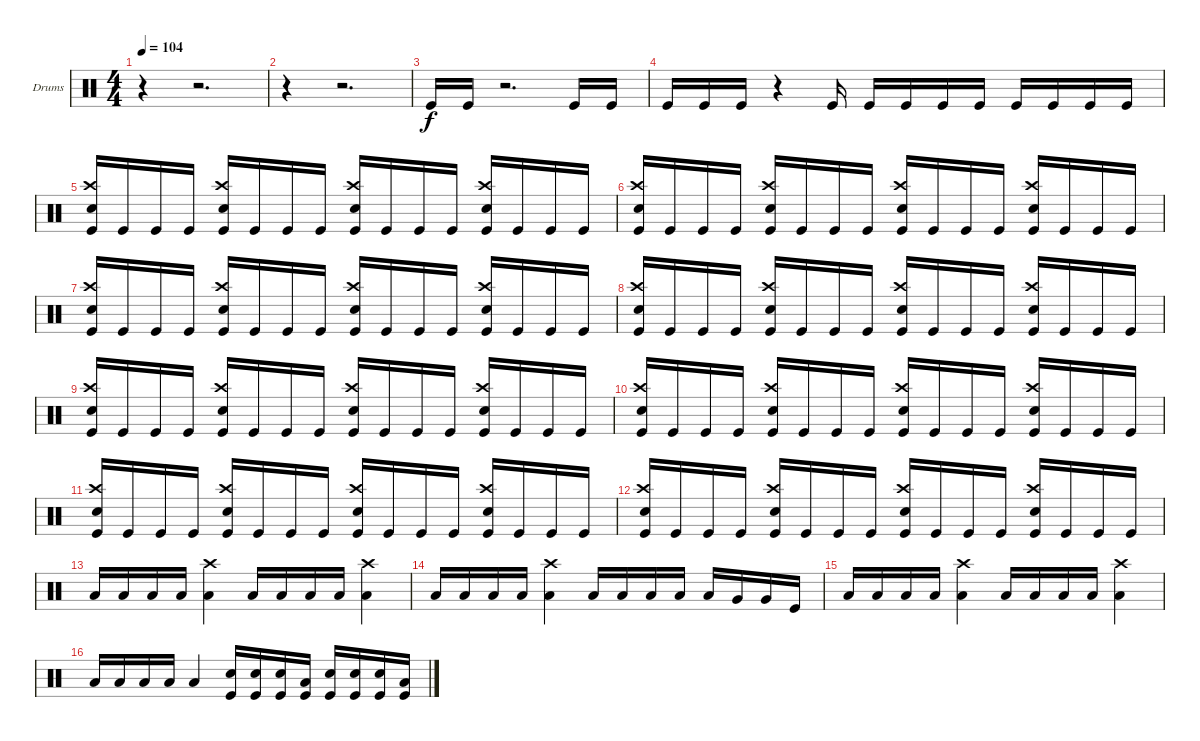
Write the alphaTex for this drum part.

\bracketExtendMode groupsimilarinstruments
\firstSystemTrackNameOrientation horizontal
\otherSystemsTrackNameOrientation horizontal
\track ("Drumkit" "Drums") {instrument percussion}
\staff {score}
\articulation defaults
\ts (4 4)
\beaming (8 2 2 2 2)
\tempo 104
\clef neutral
\ks c
r.4{dy f} r.2{d} |
r.4 r.2{d} |
"Kick (hit)".16 "Kick (hit)".16 r.2{d} "Kick (hit)".16 "Kick (hit)".16 |
"Kick (hit)".16 "Kick (hit)".16 "Kick (hit)".16 r.4 "Kick (hit)".16 "Kick (hit)".16 "Kick (hit)".16 "Kick (hit)".16 "Kick (hit)".16 "Kick (hit)".16 "Kick (hit)".16 "Kick (hit)".16 "Kick (hit)".16 |
("Crash high (hit)" "Snare (hit) 2" "Kick (hit)").16 "Kick (hit)".16 "Kick (hit)".16 "Kick (hit)".16 ("Crash high (hit)" "Snare (hit) 2" "Kick (hit)").16 "Kick (hit)".16 "Kick (hit)".16 "Kick (hit)".16 ("Crash high (hit)" "Snare (hit) 2" "Kick (hit)").16 "Kick (hit)".16 "Kick (hit)".16 "Kick (hit)".16 ("Crash high (hit)" "Snare (hit) 2" "Kick (hit)").16 "Kick (hit)".16 "Kick (hit)".16 "Kick (hit)".16 |
("Crash high (hit)" "Snare (hit) 2" "Kick (hit)").16 "Kick (hit)".16 "Kick (hit)".16 "Kick (hit)".16 ("Crash high (hit)" "Snare (hit) 2" "Kick (hit)").16 "Kick (hit)".16 "Kick (hit)".16 "Kick (hit)".16 ("Crash high (hit)" "Snare (hit) 2" "Kick (hit)").16 "Kick (hit)".16 "Kick (hit)".16 "Kick (hit)".16 ("Crash high (hit)" "Snare (hit) 2" "Kick (hit)").16 "Kick (hit)".16 "Kick (hit)".16 "Kick (hit)".16 |
("Crash high (hit)" "Snare (hit) 2" "Kick (hit)").16 "Kick (hit)".16 "Kick (hit)".16 "Kick (hit)".16 ("Crash high (hit)" "Snare (hit) 2" "Kick (hit)").16 "Kick (hit)".16 "Kick (hit)".16 "Kick (hit)".16 ("Crash high (hit)" "Snare (hit) 2" "Kick (hit)").16 "Kick (hit)".16 "Kick (hit)".16 "Kick (hit)".16 ("Crash high (hit)" "Snare (hit) 2" "Kick (hit)").16 "Kick (hit)".16 "Kick (hit)".16 "Kick (hit)".16 |
("Crash high (hit)" "Snare (hit) 2" "Kick (hit)").16 "Kick (hit)".16 "Kick (hit)".16 "Kick (hit)".16 ("Crash high (hit)" "Snare (hit) 2" "Kick (hit)").16 "Kick (hit)".16 "Kick (hit)".16 "Kick (hit)".16 ("Crash high (hit)" "Snare (hit) 2" "Kick (hit)").16 "Kick (hit)".16 "Kick (hit)".16 "Kick (hit)".16 ("Crash high (hit)" "Snare (hit) 2" "Kick (hit)").16 "Kick (hit)".16 "Kick (hit)".16 "Kick (hit)".16 |
("Crash high (hit)" "Snare (hit) 2" "Kick (hit)").16 "Kick (hit)".16 "Kick (hit)".16 "Kick (hit)".16 ("Crash high (hit)" "Snare (hit) 2" "Kick (hit)").16 "Kick (hit)".16 "Kick (hit)".16 "Kick (hit)".16 ("Crash high (hit)" "Snare (hit) 2" "Kick (hit)").16 "Kick (hit)".16 "Kick (hit)".16 "Kick (hit)".16 ("Crash high (hit)" "Snare (hit) 2" "Kick (hit)").16 "Kick (hit)".16 "Kick (hit)".16 "Kick (hit)".16 |
("Crash high (hit)" "Snare (hit) 2" "Kick (hit)").16 "Kick (hit)".16 "Kick (hit)".16 "Kick (hit)".16 ("Crash high (hit)" "Snare (hit) 2" "Kick (hit)").16 "Kick (hit)".16 "Kick (hit)".16 "Kick (hit)".16 ("Crash high (hit)" "Snare (hit) 2" "Kick (hit)").16 "Kick (hit)".16 "Kick (hit)".16 "Kick (hit)".16 ("Crash high (hit)" "Snare (hit) 2" "Kick (hit)").16 "Kick (hit)".16 "Kick (hit)".16 "Kick (hit)".16 |
("Crash high (hit)" "Snare (hit) 2" "Kick (hit)").16 "Kick (hit)".16 "Kick (hit)".16 "Kick (hit)".16 ("Crash high (hit)" "Snare (hit) 2" "Kick (hit)").16 "Kick (hit)".16 "Kick (hit)".16 "Kick (hit)".16 ("Crash high (hit)" "Snare (hit) 2" "Kick (hit)").16 "Kick (hit)".16 "Kick (hit)".16 "Kick (hit)".16 ("Crash high (hit)" "Snare (hit) 2" "Kick (hit)").16 "Kick (hit)".16 "Kick (hit)".16 "Kick (hit)".16 |
("Crash high (hit)" "Snare (hit) 2" "Kick (hit)").16 "Kick (hit)".16 "Kick (hit)".16 "Kick (hit)".16 ("Crash high (hit)" "Snare (hit) 2" "Kick (hit)").16 "Kick (hit)".16 "Kick (hit)".16 "Kick (hit)".16 ("Crash high (hit)" "Snare (hit) 2" "Kick (hit)").16 "Kick (hit)".16 "Kick (hit)".16 "Kick (hit)".16 ("Crash high (hit)" "Snare (hit) 2" "Kick (hit)").16 "Kick (hit)".16 "Kick (hit)".16 "Kick (hit)".16 |
"Low Tom (hit)".16 "Low Tom (hit)".16 "Low Tom (hit)".16 "Low Tom (hit)".16 ("Crash high (hit)" "Low Tom (hit)").4 "Low Tom (hit)".16 "Low Tom (hit)".16 "Low Tom (hit)".16 "Low Tom (hit)".16 ("Crash high (hit)" "Low Tom (hit)").4 |
"Low Tom (hit)".16 "Low Tom (hit)".16 "Low Tom (hit)".16 "Low Tom (hit)".16 ("Crash high (hit)" "Low Tom (hit)").4 "Low Tom (hit)".16 "Low Tom (hit)".16 "Low Tom (hit)".16 "Low Tom (hit)".16 "Low Tom (hit)".16 "Very Low Tom (hit)".16 "Very Low Tom (hit)".16 "Kick (hit)".16 |
"Low Tom (hit)".16 "Low Tom (hit)".16 "Low Tom (hit)".16 "Low Tom (hit)".16 ("Crash high (hit)" "Low Tom (hit)").4 "Low Tom (hit)".16 "Low Tom (hit)".16 "Low Tom (hit)".16 "Low Tom (hit)".16 ("Crash high (hit)" "Low Tom (hit)").4 |
"Low Tom (hit)".16 "Low Tom (hit)".16 "Low Tom (hit)".16 "Low Tom (hit)".16 "Low Tom (hit)".4 ("Snare (hit) 2" "Kick (hit)").16 ("Snare (hit) 2" "Kick (hit)").16 ("Snare (hit) 2" "Kick (hit)").16 ("Low Tom (hit)" "Kick (hit)").16 ("Snare (hit) 2" "Kick (hit)").16 ("Snare (hit) 2" "Kick (hit)").16 ("Snare (hit) 2" "Kick (hit)").16 ("Low Tom (hit)" "Kick (hit)").16
